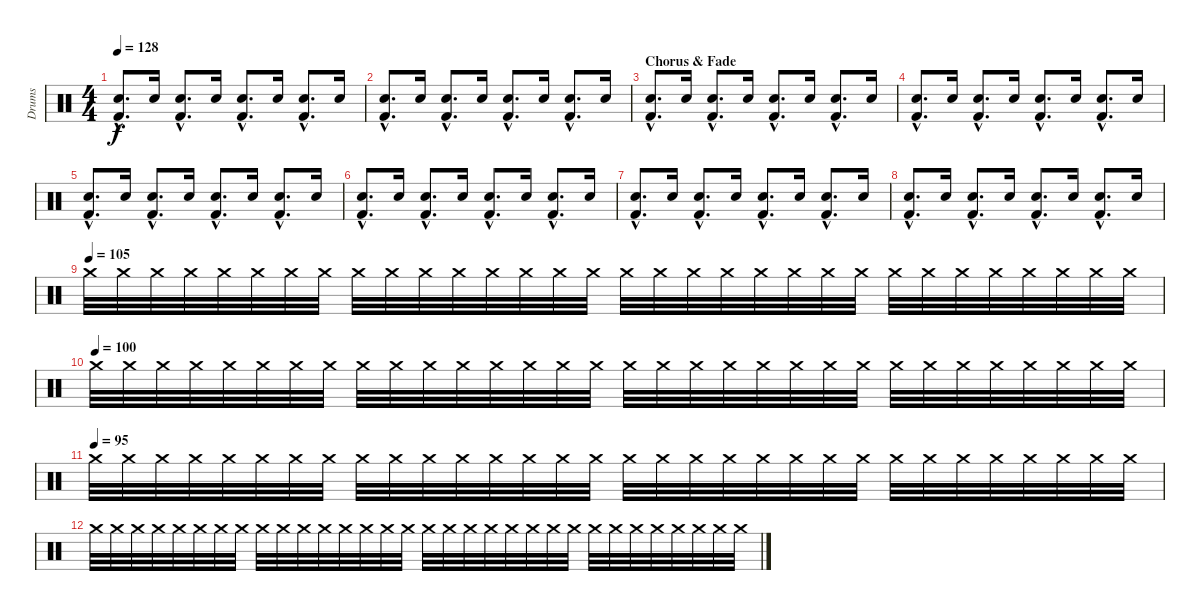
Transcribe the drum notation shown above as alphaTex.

\track ("Drums" "Drums") {instrument percussion}
\staff {score}
\articulation defaults
\ts (4 4)
\tempo 128
\clef neutral
\ks c
("Snare (hit) 2"{hac} "Kick (hit) 2"{hac}).8{d dy f} "Snare (hit) 2".16 ("Snare (hit) 2"{hac} "Kick (hit) 2"{hac}).8{d} "Snare (hit) 2".16 ("Snare (hit) 2"{hac} "Kick (hit) 2"{hac}).8{d} "Snare (hit) 2".16 ("Snare (hit) 2"{hac} "Kick (hit) 2"{hac}).8{d} "Snare (hit) 2".16 |
("Snare (hit) 2"{hac} "Kick (hit) 2"{hac}).8{d} "Snare (hit) 2".16 ("Snare (hit) 2"{hac} "Kick (hit) 2"{hac}).8{d} "Snare (hit) 2".16 ("Snare (hit) 2"{hac} "Kick (hit) 2"{hac}).8{d} "Snare (hit) 2".16 ("Snare (hit) 2"{hac} "Kick (hit) 2"{hac}).8{d} "Snare (hit) 2".16 |
\section ("" "Chorus & Fade")
("Snare (hit) 2"{hac} "Kick (hit) 2"{hac}).8{d} "Snare (hit) 2".16 ("Snare (hit) 2"{hac} "Kick (hit) 2"{hac}).8{d} "Snare (hit) 2".16 ("Snare (hit) 2"{hac} "Kick (hit) 2"{hac}).8{d} "Snare (hit) 2".16 ("Snare (hit) 2"{hac} "Kick (hit) 2"{hac}).8{d} "Snare (hit) 2".16 |
("Snare (hit) 2"{hac} "Kick (hit) 2"{hac}).8{d} "Snare (hit) 2".16 ("Snare (hit) 2"{hac} "Kick (hit) 2"{hac}).8{d} "Snare (hit) 2".16 ("Snare (hit) 2"{hac} "Kick (hit) 2"{hac}).8{d} "Snare (hit) 2".16 ("Snare (hit) 2"{hac} "Kick (hit) 2"{hac}).8{d} "Snare (hit) 2".16 |
("Snare (hit) 2"{hac} "Kick (hit) 2"{hac}).8{d} "Snare (hit) 2".16 ("Snare (hit) 2"{hac} "Kick (hit) 2"{hac}).8{d} "Snare (hit) 2".16 ("Snare (hit) 2"{hac} "Kick (hit) 2"{hac}).8{d} "Snare (hit) 2".16 ("Snare (hit) 2"{hac} "Kick (hit) 2"{hac}).8{d} "Snare (hit) 2".16 |
("Snare (hit) 2"{hac} "Kick (hit) 2"{hac}).8{d} "Snare (hit) 2".16 ("Snare (hit) 2"{hac} "Kick (hit) 2"{hac}).8{d} "Snare (hit) 2".16 ("Snare (hit) 2"{hac} "Kick (hit) 2"{hac}).8{d} "Snare (hit) 2".16 ("Snare (hit) 2"{hac} "Kick (hit) 2"{hac}).8{d} "Snare (hit) 2".16 |
("Snare (hit) 2"{hac} "Kick (hit) 2"{hac}).8{d} "Snare (hit) 2".16 ("Snare (hit) 2"{hac} "Kick (hit) 2"{hac}).8{d} "Snare (hit) 2".16 ("Snare (hit) 2"{hac} "Kick (hit) 2"{hac}).8{d} "Snare (hit) 2".16 ("Snare (hit) 2"{hac} "Kick (hit) 2"{hac}).8{d} "Snare (hit) 2".16 |
("Snare (hit) 2"{hac} "Kick (hit) 2"{hac}).8{d} "Snare (hit) 2".16 ("Snare (hit) 2"{hac} "Kick (hit) 2"{hac}).8{d} "Snare (hit) 2".16 ("Snare (hit) 2"{hac} "Kick (hit) 2"{hac}).8{d} "Snare (hit) 2".16 ("Snare (hit) 2"{hac} "Kick (hit) 2"{hac}).8{d} "Snare (hit) 2".16 |
\tempo (105)
"Crash medium (hit)".32{volume 8} "Crash medium (hit)".32 "Crash medium (hit)".32 "Crash medium (hit)".32 "Crash medium (hit)".32 "Crash medium (hit)".32 "Crash medium (hit)".32 "Crash medium (hit)".32 "Crash medium (hit)".32 "Crash medium (hit)".32 "Crash medium (hit)".32 "Crash medium (hit)".32 "Crash medium (hit)".32 "Crash medium (hit)".32 "Crash medium (hit)".32 "Crash medium (hit)".32 "Crash medium (hit)".32 "Crash medium (hit)".32 "Crash medium (hit)".32 "Crash medium (hit)".32 "Crash medium (hit)".32 "Crash medium (hit)".32 "Crash medium (hit)".32 "Crash medium (hit)".32 "Crash medium (hit)".32 "Crash medium (hit)".32 "Crash medium (hit)".32 "Crash medium (hit)".32 "Crash medium (hit)".32 "Crash medium (hit)".32 "Crash medium (hit)".32 "Crash medium (hit)".32 |
\tempo (100)
"Crash medium (hit)".32{volume 7} "Crash medium (hit)".32 "Crash medium (hit)".32 "Crash medium (hit)".32 "Crash medium (hit)".32 "Crash medium (hit)".32 "Crash medium (hit)".32 "Crash medium (hit)".32 "Crash medium (hit)".32 "Crash medium (hit)".32 "Crash medium (hit)".32 "Crash medium (hit)".32 "Crash medium (hit)".32 "Crash medium (hit)".32 "Crash medium (hit)".32 "Crash medium (hit)".32 "Crash medium (hit)".32 "Crash medium (hit)".32 "Crash medium (hit)".32 "Crash medium (hit)".32 "Crash medium (hit)".32 "Crash medium (hit)".32 "Crash medium (hit)".32 "Crash medium (hit)".32 "Crash medium (hit)".32 "Crash medium (hit)".32 "Crash medium (hit)".32 "Crash medium (hit)".32 "Crash medium (hit)".32 "Crash medium (hit)".32 "Crash medium (hit)".32 "Crash medium (hit)".32 |
\tempo (95)
"Crash medium (hit)".32{volume 6} "Crash medium (hit)".32 "Crash medium (hit)".32 "Crash medium (hit)".32 "Crash medium (hit)".32 "Crash medium (hit)".32 "Crash medium (hit)".32 "Crash medium (hit)".32 "Crash medium (hit)".32 "Crash medium (hit)".32 "Crash medium (hit)".32 "Crash medium (hit)".32 "Crash medium (hit)".32 "Crash medium (hit)".32 "Crash medium (hit)".32 "Crash medium (hit)".32 "Crash medium (hit)".32 "Crash medium (hit)".32 "Crash medium (hit)".32 "Crash medium (hit)".32 "Crash medium (hit)".32 "Crash medium (hit)".32 "Crash medium (hit)".32 "Crash medium (hit)".32 "Crash medium (hit)".32 "Crash medium (hit)".32 "Crash medium (hit)".32 "Crash medium (hit)".32 "Crash medium (hit)".32 "Crash medium (hit)".32 "Crash medium (hit)".32 "Crash medium (hit)".32 |
"Crash medium (hit)".32{volume 5} "Crash medium (hit)".32 "Crash medium (hit)".32 "Crash medium (hit)".32 "Crash medium (hit)".32 "Crash medium (hit)".32 "Crash medium (hit)".32 "Crash medium (hit)".32 "Crash medium (hit)".32 "Crash medium (hit)".32 "Crash medium (hit)".32 "Crash medium (hit)".32 "Crash medium (hit)".32 "Crash medium (hit)".32 "Crash medium (hit)".32 "Crash medium (hit)".32 "Crash medium (hit)".32{volume 4} "Crash medium (hit)".32 "Crash medium (hit)".32 "Crash medium (hit)".32 "Crash medium (hit)".32 "Crash medium (hit)".32 "Crash medium (hit)".32 "Crash medium (hit)".32 "Crash medium (hit)".32 "Crash medium (hit)".32 "Crash medium (hit)".32 "Crash medium (hit)".32 "Crash medium (hit)".32 "Crash medium (hit)".32 "Crash medium (hit)".32 "Crash medium (hit)".32
